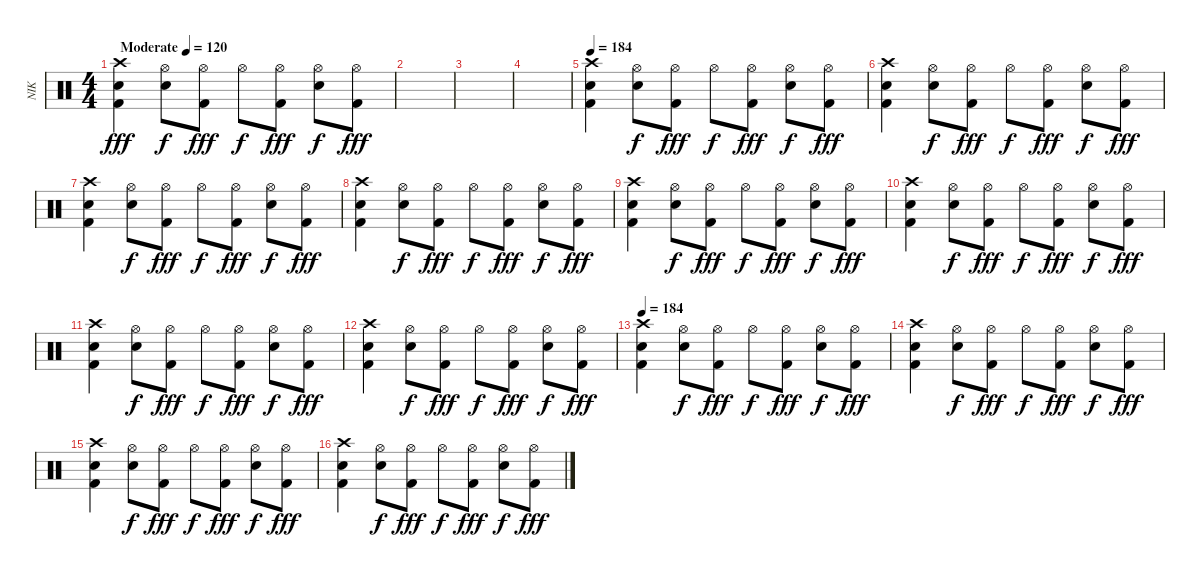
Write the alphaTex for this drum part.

\track ("NIK" "NIK") {instrument percussion}
\staff {score}
\articulation defaults
\ts (4 4)
\tempo (120 "Moderate")
\tempo 184
\tempo (120 "Moderate")
\clef neutral
\ks c
("Crash high (hit)" "Snare (hit) 2" "Kick (hit) 2").4{dy fff} ("Hi-Hat (open)" "Snare (hit) 2").8{dy f} ("Hi-Hat (open)" "Kick (hit) 2").8{dy fff} "Hi-Hat (open)".8{dy f} ("Hi-Hat (open)" "Kick (hit) 2").8{dy fff} ("Hi-Hat (open)" "Snare (hit) 2").8{dy f} ("Hi-Hat (open)" "Kick (hit) 2").8{dy fff} |
|
|
|
\tempo 184
("Crash high (hit)" "Snare (hit) 2" "Kick (hit) 2").4 ("Hi-Hat (open)" "Snare (hit) 2").8{dy f} ("Hi-Hat (open)" "Kick (hit) 2").8{dy fff} "Hi-Hat (open)".8{dy f} ("Hi-Hat (open)" "Kick (hit) 2").8{dy fff} ("Hi-Hat (open)" "Snare (hit) 2").8{dy f} ("Hi-Hat (open)" "Kick (hit) 2").8{dy fff} |
("Crash high (hit)" "Snare (hit) 2" "Kick (hit) 2").4 ("Hi-Hat (open)" "Snare (hit) 2").8{dy f} ("Hi-Hat (open)" "Kick (hit) 2").8{dy fff} "Hi-Hat (open)".8{dy f} ("Hi-Hat (open)" "Kick (hit) 2").8{dy fff} ("Hi-Hat (open)" "Snare (hit) 2").8{dy f} ("Hi-Hat (open)" "Kick (hit) 2").8{dy fff} |
("Crash high (hit)" "Snare (hit) 2" "Kick (hit) 2").4 ("Hi-Hat (open)" "Snare (hit) 2").8{dy f} ("Hi-Hat (open)" "Kick (hit) 2").8{dy fff} "Hi-Hat (open)".8{dy f} ("Hi-Hat (open)" "Kick (hit) 2").8{dy fff} ("Hi-Hat (open)" "Snare (hit) 2").8{dy f} ("Hi-Hat (open)" "Kick (hit) 2").8{dy fff} |
("Crash high (hit)" "Snare (hit) 2" "Kick (hit) 2").4 ("Hi-Hat (open)" "Snare (hit) 2").8{dy f} ("Hi-Hat (open)" "Kick (hit) 2").8{dy fff} "Hi-Hat (open)".8{dy f} ("Hi-Hat (open)" "Kick (hit) 2").8{dy fff} ("Hi-Hat (open)" "Snare (hit) 2").8{dy f} ("Hi-Hat (open)" "Kick (hit) 2").8{dy fff} |
("Crash high (hit)" "Snare (hit) 2" "Kick (hit) 2").4 ("Hi-Hat (open)" "Snare (hit) 2").8{dy f} ("Hi-Hat (open)" "Kick (hit) 2").8{dy fff} "Hi-Hat (open)".8{dy f} ("Hi-Hat (open)" "Kick (hit) 2").8{dy fff} ("Hi-Hat (open)" "Snare (hit) 2").8{dy f} ("Hi-Hat (open)" "Kick (hit) 2").8{dy fff} |
("Crash high (hit)" "Snare (hit) 2" "Kick (hit) 2").4 ("Hi-Hat (open)" "Snare (hit) 2").8{dy f} ("Hi-Hat (open)" "Kick (hit) 2").8{dy fff} "Hi-Hat (open)".8{dy f} ("Hi-Hat (open)" "Kick (hit) 2").8{dy fff} ("Hi-Hat (open)" "Snare (hit) 2").8{dy f} ("Hi-Hat (open)" "Kick (hit) 2").8{dy fff} |
("Crash high (hit)" "Snare (hit) 2" "Kick (hit) 2").4 ("Hi-Hat (open)" "Snare (hit) 2").8{dy f} ("Hi-Hat (open)" "Kick (hit) 2").8{dy fff} "Hi-Hat (open)".8{dy f} ("Hi-Hat (open)" "Kick (hit) 2").8{dy fff} ("Hi-Hat (open)" "Snare (hit) 2").8{dy f} ("Hi-Hat (open)" "Kick (hit) 2").8{dy fff} |
("Crash high (hit)" "Snare (hit) 2" "Kick (hit) 2").4 ("Hi-Hat (open)" "Snare (hit) 2").8{dy f} ("Hi-Hat (open)" "Kick (hit) 2").8{dy fff} "Hi-Hat (open)".8{dy f} ("Hi-Hat (open)" "Kick (hit) 2").8{dy fff} ("Hi-Hat (open)" "Snare (hit) 2").8{dy f} ("Hi-Hat (open)" "Kick (hit) 2").8{dy fff} |
\tempo 184
("Crash high (hit)" "Snare (hit) 2" "Kick (hit) 2").4 ("Hi-Hat (open)" "Snare (hit) 2").8{dy f} ("Hi-Hat (open)" "Kick (hit) 2").8{dy fff} "Hi-Hat (open)".8{dy f} ("Hi-Hat (open)" "Kick (hit) 2").8{dy fff} ("Hi-Hat (open)" "Snare (hit) 2").8{dy f} ("Hi-Hat (open)" "Kick (hit) 2").8{dy fff} |
("Crash high (hit)" "Snare (hit) 2" "Kick (hit) 2").4 ("Hi-Hat (open)" "Snare (hit) 2").8{dy f} ("Hi-Hat (open)" "Kick (hit) 2").8{dy fff} "Hi-Hat (open)".8{dy f} ("Hi-Hat (open)" "Kick (hit) 2").8{dy fff} ("Hi-Hat (open)" "Snare (hit) 2").8{dy f} ("Hi-Hat (open)" "Kick (hit) 2").8{dy fff} |
("Crash high (hit)" "Snare (hit) 2" "Kick (hit) 2").4 ("Hi-Hat (open)" "Snare (hit) 2").8{dy f} ("Hi-Hat (open)" "Kick (hit) 2").8{dy fff} "Hi-Hat (open)".8{dy f} ("Hi-Hat (open)" "Kick (hit) 2").8{dy fff} ("Hi-Hat (open)" "Snare (hit) 2").8{dy f} ("Hi-Hat (open)" "Kick (hit) 2").8{dy fff} |
("Crash high (hit)" "Snare (hit) 2" "Kick (hit) 2").4 ("Hi-Hat (open)" "Snare (hit) 2").8{dy f} ("Hi-Hat (open)" "Kick (hit) 2").8{dy fff} "Hi-Hat (open)".8{dy f} ("Hi-Hat (open)" "Kick (hit) 2").8{dy fff} ("Hi-Hat (open)" "Snare (hit) 2").8{dy f} ("Hi-Hat (open)" "Kick (hit) 2").8{dy fff}
